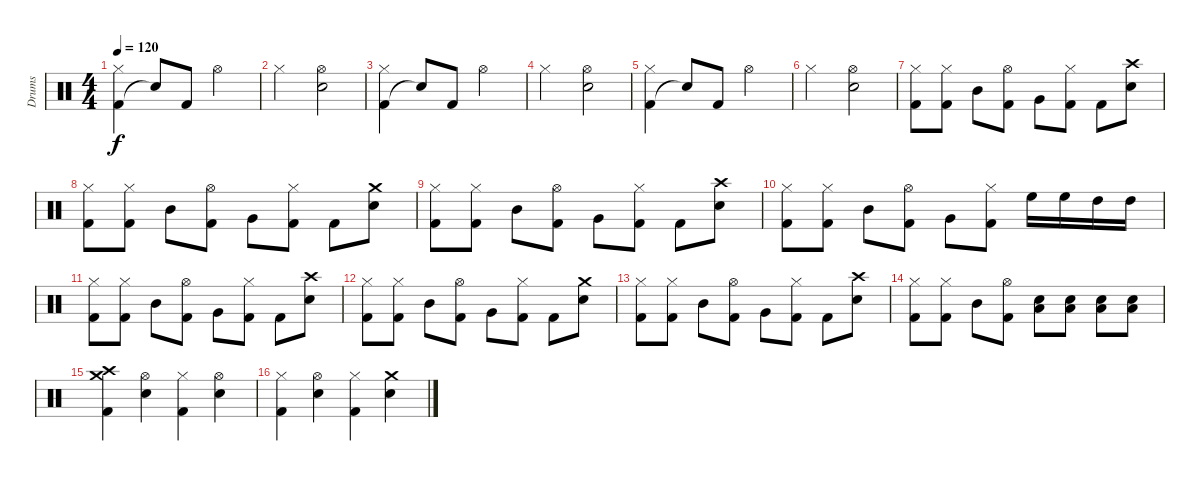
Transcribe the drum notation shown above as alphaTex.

\track ("Drums" "Drums") {instrument percussion}
\staff {score}
\articulation defaults
\ts (4 4)
\tempo 120
\clef neutral
\ks c
("Kick (hit) 2" "Hi-Hat (closed)").4{dy f} "Snare (hit)"{t}.8 "Kick (hit) 2".8 "Hi-Hat (open)".2 |
"Hi-Hat (closed)".2 ("Electric Snare (hit)" "Hi-Hat (open)").2 |
("Kick (hit) 2" "Hi-Hat (closed)").4 "Snare (hit)"{t}.8 "Kick (hit) 2".8 "Hi-Hat (open)".2 |
"Hi-Hat (closed)".2 ("Electric Snare (hit)" "Hi-Hat (open)").2 |
("Kick (hit) 2" "Hi-Hat (closed)").4 "Snare (hit)"{t}.8 "Kick (hit) 2".8 "Hi-Hat (open)".2 |
"Hi-Hat (closed)".2 ("Electric Snare (hit)" "Hi-Hat (open)").2 |
("Kick (hit) 2" "Hi-Hat (closed)").8 ("Kick (hit) 2" "Hi-Hat (closed)").8 "Mid Tom (hit)".8 ("Kick (hit) 2" "Hi-Hat (open)").8 "Very Low Tom (hit)".8 ("Kick (hit) 2" "Hi-Hat (closed)").8 "Kick (hit) 2".8 ("Electric Snare (hit)" "Crash high (hit)").8 |
("Kick (hit) 2" "Hi-Hat (closed)").8 ("Kick (hit) 2" "Hi-Hat (closed)").8 "Mid Tom (hit)".8 ("Kick (hit) 2" "Hi-Hat (open)").8 "Very Low Tom (hit)".8 ("Kick (hit) 2" "Hi-Hat (closed)").8 "Kick (hit) 2".8 ("Electric Snare (hit)" "Crash medium (hit)").8 |
("Kick (hit) 2" "Hi-Hat (closed)").8 ("Kick (hit) 2" "Hi-Hat (closed)").8 "Mid Tom (hit)".8 ("Kick (hit) 2" "Hi-Hat (open)").8 "Very Low Tom (hit)".8 ("Kick (hit) 2" "Hi-Hat (closed)").8 "Kick (hit) 2".8 ("Electric Snare (hit)" "Crash high (hit)").8 |
("Kick (hit) 2" "Hi-Hat (closed)").8 ("Kick (hit) 2" "Hi-Hat (closed)").8 "Mid Tom (hit)".8 ("Kick (hit) 2" "Hi-Hat (open)").8 "Very Low Tom (hit)".8 ("Kick (hit) 2" "Hi-Hat (closed)").8 "High Floor Tom (hit)".16 "High Floor Tom (hit)".16 "High Tom (hit)".16 "High Tom (hit)".16 |
("Kick (hit) 2" "Hi-Hat (closed)").8 ("Kick (hit) 2" "Hi-Hat (closed)").8 "Mid Tom (hit)".8 ("Kick (hit) 2" "Hi-Hat (open)").8 "Very Low Tom (hit)".8 ("Kick (hit) 2" "Hi-Hat (closed)").8 "Kick (hit) 2".8 ("Electric Snare (hit)" "Crash high (hit)").8 |
("Kick (hit) 2" "Hi-Hat (closed)").8 ("Kick (hit) 2" "Hi-Hat (closed)").8 "Mid Tom (hit)".8 ("Kick (hit) 2" "Hi-Hat (open)").8 "Very Low Tom (hit)".8 ("Kick (hit) 2" "Hi-Hat (closed)").8 "Kick (hit) 2".8 ("Electric Snare (hit)" "Crash medium (hit)").8 |
("Kick (hit) 2" "Hi-Hat (closed)").8 ("Kick (hit) 2" "Hi-Hat (closed)").8 "Mid Tom (hit)".8 ("Kick (hit) 2" "Hi-Hat (open)").8 "Very Low Tom (hit)".8 ("Kick (hit) 2" "Hi-Hat (closed)").8 "Kick (hit) 2".8 ("Electric Snare (hit)" "Crash high (hit)").8 |
("Kick (hit) 2" "Hi-Hat (closed)").8 ("Kick (hit) 2" "Hi-Hat (closed)").8 "Mid Tom (hit)".8 ("Kick (hit) 2" "Hi-Hat (open)").8 ("Low Tom (hit)" "Electric Snare (hit)").8 ("Low Tom (hit)" "Electric Snare (hit)").8 ("Low Tom (hit)" "Electric Snare (hit)").8 ("Low Tom (hit)" "Electric Snare (hit)").8 |
("Kick (hit) 2" "Crash medium (hit)" "Crash high (hit)").4 ("Electric Snare (hit)" "Hi-Hat (open)").4 ("Kick (hit) 2" "Hi-Hat (closed)").4 ("Electric Snare (hit)" "Hi-Hat (open)").4 |
("Kick (hit) 2" "Hi-Hat (closed)").4 ("Electric Snare (hit)" "Hi-Hat (open)").4 ("Kick (hit) 2" "Hi-Hat (closed)").4 ("Electric Snare (hit)" "Crash medium (hit)").4
